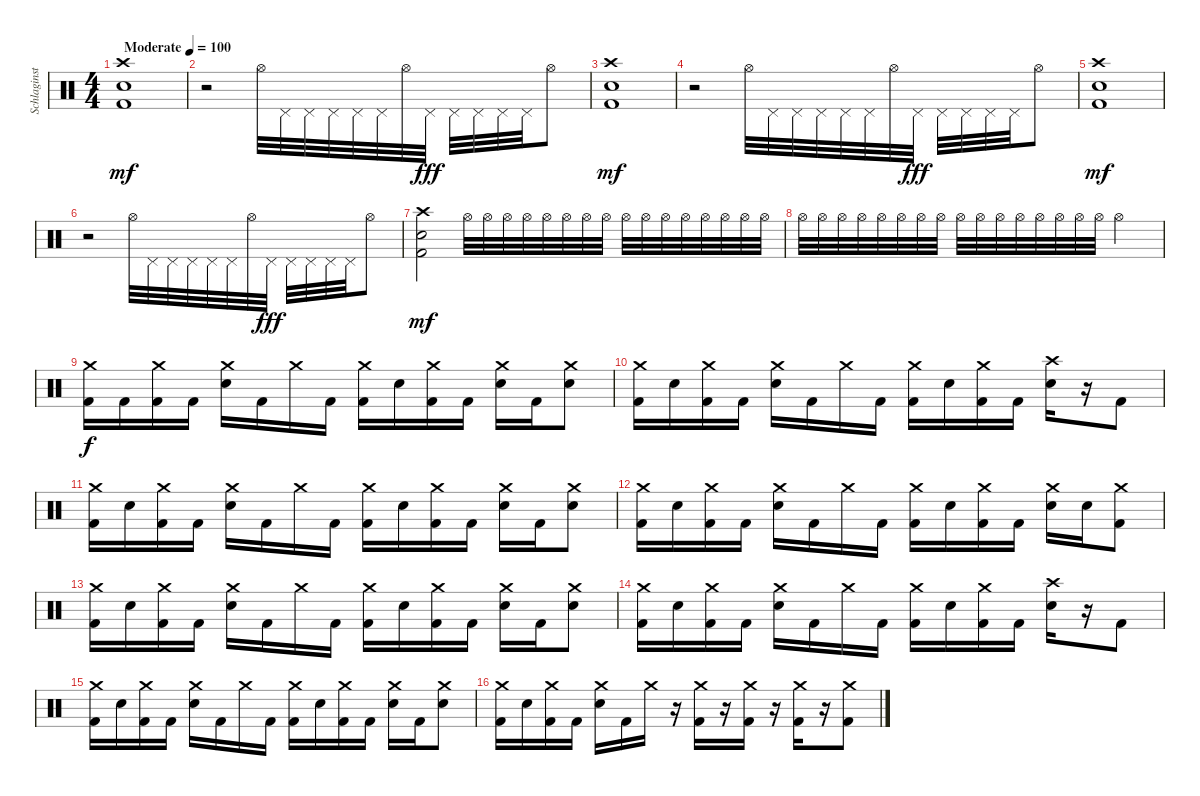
\track ("Schlaginstrumente - Auswahl" "Schlaginst") {instrument percussion}
\staff {score}
\articulation defaults
\ts (4 4)
\tempo (100 "Moderate")
\clef neutral
\ks c
("Crash high (hit)" "Snare (hit) 2" "Kick (hit) 2").1{dy mf} |
r.2 "Hi-Hat (open)".32 "Pedal Hi-Hat (hit)".32 "Pedal Hi-Hat (hit)".32 "Pedal Hi-Hat (hit)".32 "Pedal Hi-Hat (hit)".32 "Pedal Hi-Hat (hit)".32 "Hi-Hat (open)".32 "Pedal Hi-Hat (hit)".32{dy fff} "Pedal Hi-Hat (hit)".32 "Pedal Hi-Hat (hit)".32 "Pedal Hi-Hat (hit)".32 "Pedal Hi-Hat (hit)".32 "Hi-Hat (open)".8 |
("Crash high (hit)" "Snare (hit) 2" "Kick (hit) 2").1{dy mf} |
r.2 "Hi-Hat (open)".32 "Pedal Hi-Hat (hit)".32 "Pedal Hi-Hat (hit)".32 "Pedal Hi-Hat (hit)".32 "Pedal Hi-Hat (hit)".32 "Pedal Hi-Hat (hit)".32 "Hi-Hat (open)".32 "Pedal Hi-Hat (hit)".32{dy fff} "Pedal Hi-Hat (hit)".32 "Pedal Hi-Hat (hit)".32 "Pedal Hi-Hat (hit)".32 "Pedal Hi-Hat (hit)".32 "Hi-Hat (open)".8 |
("Crash high (hit)" "Snare (hit) 2" "Kick (hit) 2").1{dy mf} |
r.2 "Hi-Hat (open)".32 "Pedal Hi-Hat (hit)".32 "Pedal Hi-Hat (hit)".32 "Pedal Hi-Hat (hit)".32 "Pedal Hi-Hat (hit)".32 "Pedal Hi-Hat (hit)".32 "Hi-Hat (open)".32 "Pedal Hi-Hat (hit)".32{dy fff} "Pedal Hi-Hat (hit)".32 "Pedal Hi-Hat (hit)".32 "Pedal Hi-Hat (hit)".32 "Pedal Hi-Hat (hit)".32 "Hi-Hat (open)".8 |
("Crash high (hit)" "Snare (hit) 2" "Kick (hit) 2").2{dy mf} "Hi-Hat (open)".32{volume 2} "Hi-Hat (open)".32 "Hi-Hat (open)".32{volume 13} "Hi-Hat (open)".32 "Hi-Hat (open)".32 "Hi-Hat (open)".32 "Hi-Hat (open)".32 "Hi-Hat (open)".32 "Hi-Hat (open)".32 "Hi-Hat (open)".32 "Hi-Hat (open)".32 "Hi-Hat (open)".32 "Hi-Hat (open)".32 "Hi-Hat (open)".32 "Hi-Hat (open)".32 "Hi-Hat (open)".32 |
"Hi-Hat (open)".32 "Hi-Hat (open)".32 "Hi-Hat (open)".32 "Hi-Hat (open)".32 "Hi-Hat (open)".32 "Hi-Hat (open)".32 "Hi-Hat (open)".32 "Hi-Hat (open)".32 "Hi-Hat (open)".32 "Hi-Hat (open)".32 "Hi-Hat (open)".32 "Hi-Hat (open)".32 "Hi-Hat (open)".32 "Hi-Hat (open)".32 "Hi-Hat (open)".32 "Hi-Hat (open)".32 "Hi-Hat (open)".2 |
("Crash medium (hit)" "Kick (hit) 2").16{dy f} "Kick (hit) 2".16 ("Crash medium (hit)" "Kick (hit) 2").16 "Kick (hit) 2".16 ("Crash medium (hit)" "Snare (hit) 2").16 "Kick (hit) 2".16 "Crash medium (hit)".16 "Kick (hit) 2".16 ("Crash medium (hit)" "Kick (hit) 2").16 "Snare (hit) 2".16 ("Crash medium (hit)" "Kick (hit) 2").16 "Kick (hit) 2".16 ("Crash medium (hit)" "Snare (hit) 2").16 "Kick (hit) 2".16 ("Crash medium (hit)" "Snare (hit) 2").8 |
("Crash medium (hit)" "Kick (hit) 2").16 "Snare (hit) 2".16 ("Crash medium (hit)" "Kick (hit) 2").16 "Kick (hit) 2".16 ("Crash medium (hit)" "Snare (hit) 2").16 "Kick (hit) 2".16 "Crash medium (hit)".16 "Kick (hit) 2".16 ("Crash medium (hit)" "Kick (hit) 2").16 "Snare (hit) 2".16 ("Crash medium (hit)" "Kick (hit) 2").16 "Kick (hit) 2".16 ("Crash high (hit)" "Snare (hit) 2").16 r.16 "Kick (hit) 2".8 |
("Crash medium (hit)" "Kick (hit) 2").16 "Snare (hit) 2".16 ("Crash medium (hit)" "Kick (hit) 2").16 "Kick (hit) 2".16 ("Crash medium (hit)" "Snare (hit) 2").16 "Kick (hit) 2".16 "Crash medium (hit)".16 "Kick (hit) 2".16 ("Crash medium (hit)" "Kick (hit) 2").16 "Snare (hit) 2".16 ("Crash medium (hit)" "Kick (hit) 2").16 "Kick (hit) 2".16 ("Crash medium (hit)" "Snare (hit) 2").16 "Kick (hit) 2".16 ("Crash medium (hit)" "Snare (hit) 2").8 |
("Crash medium (hit)" "Kick (hit) 2").16 "Snare (hit) 2".16 ("Crash medium (hit)" "Kick (hit) 2").16 "Kick (hit) 2".16 ("Crash medium (hit)" "Snare (hit) 2").16 "Kick (hit) 2".16 "Crash medium (hit)".16 "Kick (hit) 2".16 ("Crash medium (hit)" "Kick (hit) 2").16 "Snare (hit) 2".16 ("Crash medium (hit)" "Kick (hit) 2").16 "Kick (hit) 2".16 ("Crash medium (hit)" "Snare (hit) 2").16 "Snare (hit) 2".16 ("Crash medium (hit)" "Kick (hit) 2").8 |
("Crash medium (hit)" "Kick (hit) 2").16 "Snare (hit) 2".16 ("Crash medium (hit)" "Kick (hit) 2").16 "Kick (hit) 2".16 ("Crash medium (hit)" "Snare (hit) 2").16 "Kick (hit) 2".16 "Crash medium (hit)".16 "Kick (hit) 2".16 ("Crash medium (hit)" "Kick (hit) 2").16 "Snare (hit) 2".16 ("Crash medium (hit)" "Kick (hit) 2").16 "Kick (hit) 2".16 ("Crash medium (hit)" "Snare (hit) 2").16 "Kick (hit) 2".16 ("Crash medium (hit)" "Snare (hit) 2").8 |
("Crash medium (hit)" "Kick (hit) 2").16 "Snare (hit) 2".16 ("Crash medium (hit)" "Kick (hit) 2").16 "Kick (hit) 2".16 ("Crash medium (hit)" "Snare (hit) 2").16 "Kick (hit) 2".16 "Crash medium (hit)".16 "Kick (hit) 2".16 ("Crash medium (hit)" "Kick (hit) 2").16 "Snare (hit) 2".16 ("Crash medium (hit)" "Kick (hit) 2").16 "Kick (hit) 2".16 ("Crash high (hit)" "Snare (hit) 2").16 r.16 "Kick (hit) 2".8 |
("Crash medium (hit)" "Kick (hit) 2").16 "Snare (hit) 2".16 ("Crash medium (hit)" "Kick (hit) 2").16 "Kick (hit) 2".16 ("Crash medium (hit)" "Snare (hit) 2").16 "Kick (hit) 2".16 "Crash medium (hit)".16 "Kick (hit) 2".16 ("Crash medium (hit)" "Kick (hit) 2").16 "Snare (hit) 2".16 ("Crash medium (hit)" "Kick (hit) 2").16 "Kick (hit) 2".16 ("Crash medium (hit)" "Snare (hit) 2").16 "Kick (hit) 2".16 ("Crash medium (hit)" "Snare (hit) 2").8 |
("Crash medium (hit)" "Kick (hit) 2").16 "Snare (hit) 2".16 ("Crash medium (hit)" "Kick (hit) 2").16 "Kick (hit) 2".16 ("Crash medium (hit)" "Snare (hit) 2").16 "Kick (hit) 2".16 "Crash medium (hit)".16 r.16 ("Crash medium (hit)" "Kick (hit) 2").16 r.16 ("Crash medium (hit)" "Kick (hit) 2").16 r.16 ("Crash medium (hit)" "Kick (hit) 2").16 r.16 ("Crash medium (hit)" "Kick (hit) 2").8
